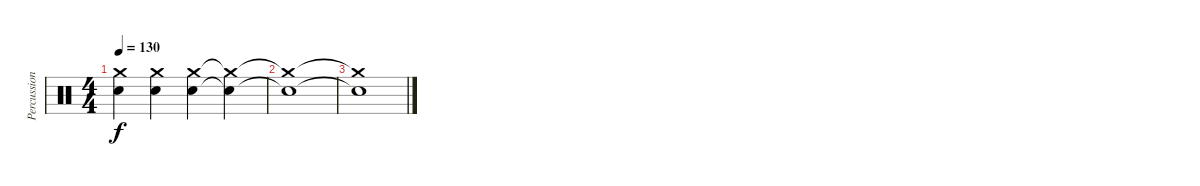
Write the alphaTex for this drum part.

\track ("Percussion" "Percussion") {instrument percussion}
\staff {score}
\articulation defaults
\ts (4 4)
\tempo 130
\clef neutral
\ks c
("Snare (hit) 2" "Crash medium (hit)").4{dy f} ("Snare (hit) 2" "Crash medium (hit)").4 ("Snare (hit) 2" "Crash medium (hit)").4 ("Snare (hit) 2"{t} "Crash medium (hit)"{t}).4 |
("Snare (hit) 2"{t} "Crash medium (hit)"{t}).1 |
("Snare (hit) 2"{t} "Crash medium (hit)"{t}).1
